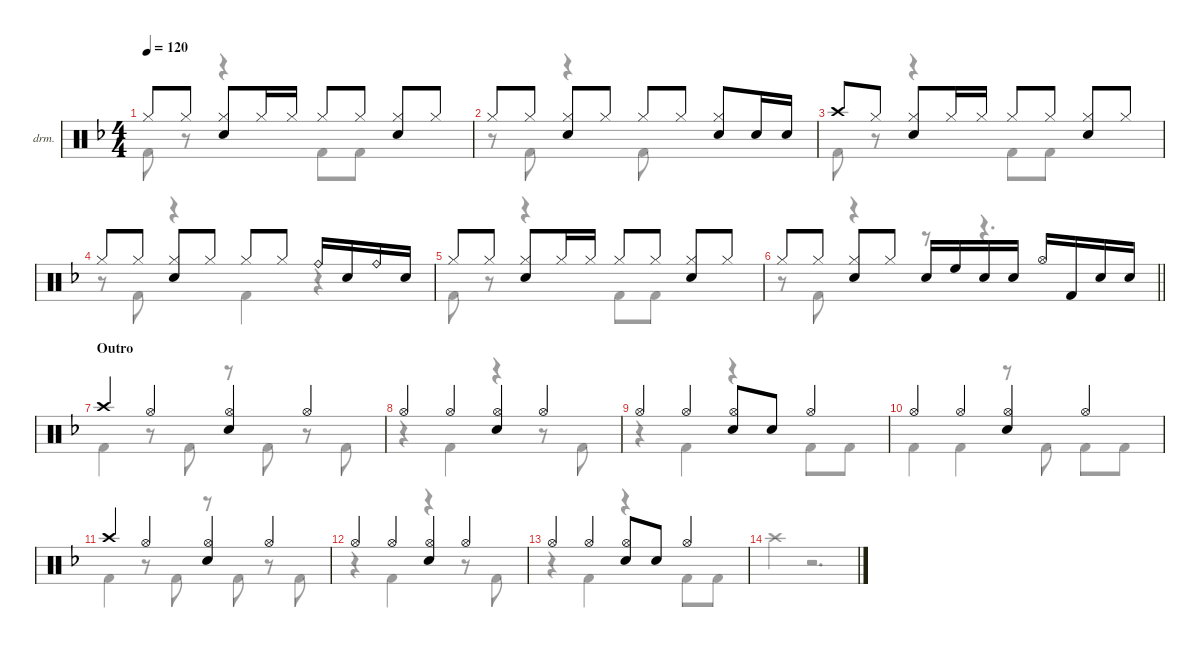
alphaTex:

\defaultSystemsLayout 4
\hideDynamics
\bracketExtendMode nobrackets
\firstSystemTrackNameOrientation horizontal
\track ("Drumkit" "drm.") {defaultSystemsLayout 4 instrument percussion}
\staff {score}
\articulation defaults
\voice
\ts (4 4)
\tempo 120
\clef neutral
\ks dminor "Hi-Hat (closed)"{acc forcenatural}.8{dy mf beam Up} "Hi-Hat (closed)"{acc forcenatural}.8{beam Up}
("Hi-Hat (closed)"{acc forcenatural} "Snare (hit) 2"{acc forcenatural}).8{beam Up} "Hi-Hat (closed)"{acc forcenatural}.16{beam Up} "Hi-Hat (closed)"{acc forcenatural}.16{beam Up} "Hi-Hat (closed)"{acc forcenatural}.8{beam Up} "Hi-Hat (closed)"{acc forcenatural}.8{beam Up} ("Hi-Hat (closed)"{acc forcenatural} "Snare (hit) 2"{acc forcenatural}).8{beam Up} "Hi-Hat (closed)"{acc forcenatural}.8{beam Up} |
"Hi-Hat (closed)"{acc forcenatural}.8{beam Up} "Hi-Hat (closed)"{acc forcenatural}.8{beam Up} ("Hi-Hat (closed)"{acc forcenatural} "Snare (hit) 2"{acc forcenatural}).8{beam Up} "Hi-Hat (closed)"{acc forcenatural}.8{beam Up} "Hi-Hat (closed)"{acc forcenatural}.8{beam Up} "Hi-Hat (closed)"{acc forcenatural}.8{beam Up} ("Hi-Hat (closed)"{acc forcenatural} "Snare (hit) 2"{acc forcenatural}).8{beam Up} "Snare (hit) 2"{acc forcenatural}.16{beam Up} "Snare (hit) 2"{acc forcenatural}.16{beam Up} |
"Crash high (hit)"{acc forcenatural}.8{beam Up} "Hi-Hat (closed)"{acc forcenatural}.8{beam Up} ("Hi-Hat (closed)"{acc forcenatural} "Snare (hit) 2"{acc forcenatural}).8{beam Up} "Hi-Hat (closed)"{acc forcenatural}.16{beam Up} "Hi-Hat (closed)"{acc forcenatural}.16{beam Up} "Hi-Hat (closed)"{acc forcenatural}.8{beam Up} "Hi-Hat (closed)"{acc forcenatural}.8{beam Up} ("Hi-Hat (closed)"{acc forcenatural} "Snare (hit) 2"{acc forcenatural}).8{beam Up} "Hi-Hat (closed)"{acc forcenatural}.8{beam Up} |
"Hi-Hat (closed)"{acc forcenatural}.8{beam Up} "Hi-Hat (closed)"{acc forcenatural}.8{beam Up} ("Hi-Hat (closed)"{acc forcenatural} "Snare (hit) 2"{acc forcenatural}).8{beam Up} "Hi-Hat (closed)"{acc forcenatural}.8{beam Up} "Hi-Hat (closed)"{acc forcenatural}.8{beam Up} "Hi-Hat (closed)"{acc forcenatural}.8{beam Up} "Ride (bell)"{acc forcenatural}.16{beam Up} "Snare (hit) 2"{acc forcenatural}.16{beam Up} "Ride (bell)"{acc forcenatural}.16{beam Up} "Snare (hit) 2"{acc forcenatural}.16{beam Up} |
"Hi-Hat (closed)"{acc forcenatural}.8{beam Up} "Hi-Hat (closed)"{acc forcenatural}.8{beam Up} ("Hi-Hat (closed)"{acc forcenatural} "Snare (hit) 2"{acc forcenatural}).8{beam Up} "Hi-Hat (closed)"{acc forcenatural}.16{beam Up} "Hi-Hat (closed)"{acc forcenatural}.16{beam Up} "Hi-Hat (closed)"{acc forcenatural}.8{beam Up} "Hi-Hat (closed)"{acc forcenatural}.8{beam Up} ("Hi-Hat (closed)"{acc forcenatural} "Snare (hit) 2"{acc forcenatural}).8{beam Up} "Hi-Hat (closed)"{acc forcenatural}.8{beam Up} |
\barLineRight lightlight "Hi-Hat (closed)"{acc forcenatural}.8{beam Up} "Hi-Hat (closed)"{acc forcenatural}.8{beam Up}
("Hi-Hat (closed)"{acc forcenatural} "Snare (hit) 2"{acc forcenatural}).8{beam Up} "Hi-Hat (closed)"{acc forcenatural}.8{beam Up} "Snare (hit) 2"{acc forcenatural}.16{beam Up} "High Floor Tom (hit)"{acc forcenatural}.16{beam Up} "Snare (hit) 2"{acc forcenatural}.16{beam Up} "Snare (hit) 2"{acc forcenatural}.16{beam Up} "Hi-Hat (open)"{acc forcenatural}.16{beam Up} "Kick (hit) 2"{acc forcenatural}.16{beam Up} "Snare (hit) 2"{acc forcenatural}.16{beam Up} "Snare (hit) 2"{acc forcenatural}.16{beam Up} |
\section ("" "Outro")
"Crash high (hit)"{acc forcenatural}.4{beam Up} "Hi-Hat (open)"{acc forcenatural}.4{beam Up} ("Snare (hit) 2"{acc forcenatural} "Hi-Hat (open)"{acc forcenatural}).4{beam Up} "Hi-Hat (open)"{acc forcenatural}.4{beam Up} |
"Hi-Hat (open)"{acc forcenatural}.4{beam Up} "Hi-Hat (open)"{acc forcenatural}.4{beam Up} ("Snare (hit) 2"{acc forcenatural} "Hi-Hat (open)"{acc forcenatural}).4{beam Up} "Hi-Hat (open)"{acc forcenatural}.4{beam Up} |
"Hi-Hat (open)"{acc forcenatural}.4{beam Up} "Hi-Hat (open)"{acc forcenatural}.4{beam Up} ("Snare (hit) 2"{acc forcenatural} "Hi-Hat (open)"{acc forcenatural}).8{beam Up} "Snare (hit) 2"{acc forcenatural}.8{beam Up} "Hi-Hat (open)"{acc forcenatural}.4{beam Up} |
"Hi-Hat (open)"{acc forcenatural}.4{beam Up} "Hi-Hat (open)"{acc forcenatural}.4{beam Up} ("Snare (hit) 2"{acc forcenatural} "Hi-Hat (open)"{acc forcenatural}).4{beam Up} "Hi-Hat (open)"{acc forcenatural}.4{beam Up} |
"Crash high (hit)"{acc forcenatural}.4{beam Up} "Hi-Hat (open)"{acc forcenatural}.4{beam Up} ("Hi-Hat (open)"{acc forcenatural} "Snare (hit) 2"{acc forcenatural}).4{beam Up} "Hi-Hat (open)"{acc forcenatural}.4{beam Up} |
"Hi-Hat (open)"{acc forcenatural}.4{beam Up} "Hi-Hat (open)"{acc forcenatural}.4{beam Up} ("Hi-Hat (open)"{acc forcenatural} "Snare (hit) 2"{acc forcenatural}).4{beam Up} "Hi-Hat (open)"{acc forcenatural}.4{beam Up} |
"Hi-Hat (open)"{acc forcenatural}.4{beam Up} "Hi-Hat (open)"{acc forcenatural}.4{beam Up} ("Snare (hit) 2"{acc forcenatural} "Hi-Hat (open)"{acc forcenatural}).8{beam Up} "Snare (hit) 2"{acc forcenatural}.8{beam Up} "Hi-Hat (open)"{acc forcenatural}.4{beam Up} |
\voice
\clef neutral
\ottava regular
\simile none
\ks dminor "Kick (hit) 2"{acc forcenatural}.8{dy mf beam Down}
r.8{beam Down} r.4{beam Down} "Kick (hit) 2"{acc forcenatural}.8{beam Down} "Kick (hit) 2"{acc forcenatural}.8{beam Down} |
r.8{beam Down} "Kick (hit) 2"{acc forcenatural}.8{beam Down} r.4{beam Down} "Kick (hit) 2"{acc forcenatural}.8{beam Down} |
"Kick (hit) 2"{acc forcenatural}.8{beam Down} r.8{beam Down} r.4{beam Down} "Kick (hit) 2"{acc forcenatural}.8{beam Down} "Kick (hit) 2"{acc forcenatural}.8{beam Down} |
r.8{beam Down} "Kick (hit) 2"{acc forcenatural}.8{beam Down} r.4{beam Down} "Kick (hit) 2"{acc forcenatural}.4{beam Down} r.4{beam Down} |
"Kick (hit) 2"{acc forcenatural}.8{beam Down} r.8{beam Down} r.4{beam Down} "Kick (hit) 2"{acc forcenatural}.8{beam Down} "Kick (hit) 2"{acc forcenatural}.8{beam Down} |
\barLineRight lightlight
r.8{beam Down} "Kick (hit) 2"{acc forcenatural}.8{beam Down} r.4{beam Down} r.8{beam Down} r.4{d beam Down} |
"Kick (hit) 2"{acc forcenatural}.4{beam Down} r.8{beam Down} "Kick (hit) 2"{acc forcenatural}.8{beam Down} r.8{beam Down} "Kick (hit) 2"{acc forcenatural}.8{beam Down} r.8{beam Down} "Kick (hit) 2"{acc forcenatural}.8{beam Down} |
r.4{beam Down} "Kick (hit) 2"{acc forcenatural}.4{beam Down} r.4{beam Down} r.8{beam Down} "Kick (hit) 2"{acc forcenatural}.8{beam Down} |
r.4{beam Down} "Kick (hit) 2"{acc forcenatural}.4{beam Down} r.4{beam Down} "Kick (hit) 2"{acc forcenatural}.8{beam Down} "Kick (hit) 2"{acc forcenatural}.8{beam Down} |
"Kick (hit) 2"{acc forcenatural}.4{beam Down} "Kick (hit) 2"{acc forcenatural}.4{beam Down} r.8{beam Down} "Kick (hit) 2"{acc forcenatural}.8{beam Down} "Kick (hit) 2"{acc forcenatural}.8{beam Down} "Kick (hit) 2"{acc forcenatural}.8{beam Down} |
"Kick (hit) 2"{acc forcenatural}.4{beam Down} r.8{beam Down} "Kick (hit) 2"{acc forcenatural}.8{beam Down} r.8{beam Down} "Kick (hit) 2"{acc forcenatural}.8{beam Down} r.8{beam Down} "Kick (hit) 2"{acc forcenatural}.8{beam Down} |
r.4{beam Down} "Kick (hit) 2"{acc forcenatural}.4{beam Down} r.4{beam Down} r.8{beam Down} "Kick (hit) 2"{acc forcenatural}.8{beam Down} |
r.4{beam Down} "Kick (hit) 2"{acc forcenatural}.4{beam Down} r.4{beam Down} "Kick (hit) 2"{acc forcenatural}.8{beam Down} "Kick (hit) 2"{acc forcenatural}.8{beam Down} |
"Crash high (hit)"{acc forcenatural}.4{beam Down} r.2{d beam Down}
